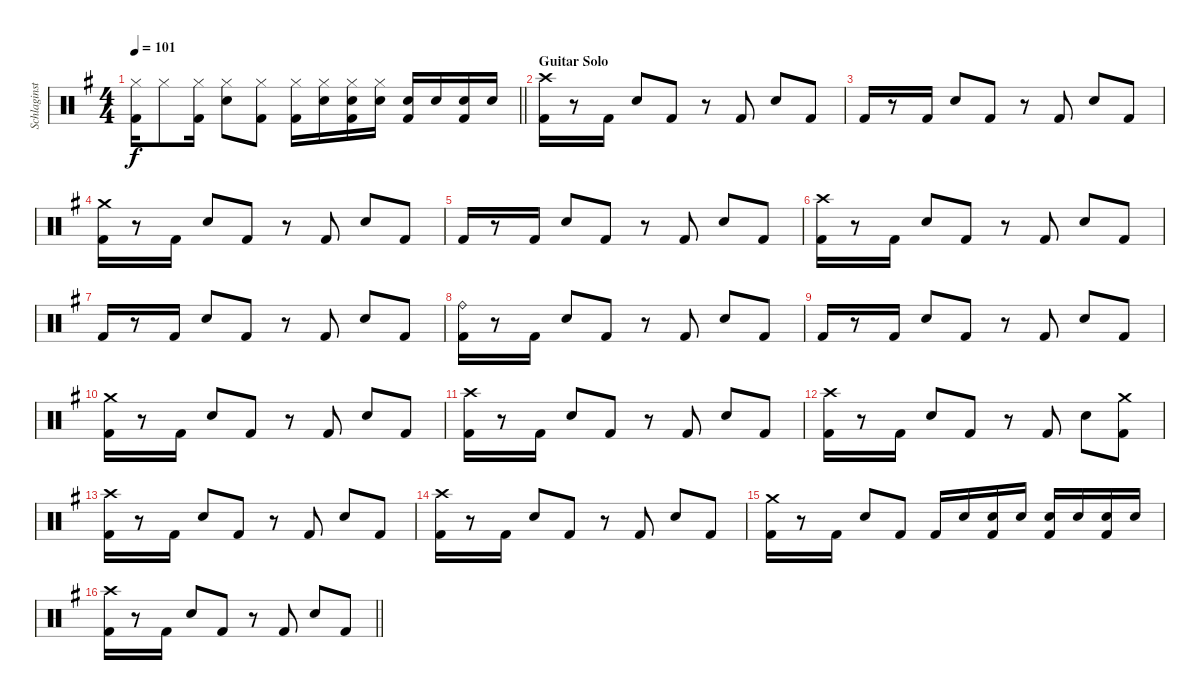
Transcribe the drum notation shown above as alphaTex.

\track ("Schlaginstrumente - Auswahl" "Schlaginst") {instrument percussion}
\staff {score}
\articulation defaults
\ts (4 4)
\tempo 101
\clef neutral
\barLineRight lightlight
\ks g
("Hi-Hat (closed)" "Kick (hit) 2").16{dy f} "Hi-Hat (closed)".8 ("Hi-Hat (closed)" "Kick (hit) 2").16 ("Hi-Hat (closed)" "Electric Snare (hit)").8 ("Hi-Hat (closed)" "Kick (hit) 2").8 ("Hi-Hat (closed)" "Kick (hit) 2").16 ("Hi-Hat (closed)" "Electric Snare (hit)").16 ("Hi-Hat (closed)" "Electric Snare (hit)" "Kick (hit) 2").16 ("Hi-Hat (closed)" "Electric Snare (hit)").16 ("Electric Snare (hit)" "Kick (hit) 2").16 "Electric Snare (hit)".16 ("Electric Snare (hit)" "Kick (hit) 2").16 "Electric Snare (hit)".16 |
\section ("" "Guitar Solo")
("Crash high (hit)" "Kick (hit) 2").16 r.8 "Kick (hit) 2".16 "Electric Snare (hit)".8 "Kick (hit) 2".8 r.8 "Kick (hit) 2".8 "Electric Snare (hit)".8 "Kick (hit) 2".8 |
"Kick (hit) 2".16 r.8 "Kick (hit) 2".16 "Electric Snare (hit)".8 "Kick (hit) 2".8 r.8 "Kick (hit) 2".8 "Electric Snare (hit)".8 "Kick (hit) 2".8 |
("Crash medium (hit)" "Kick (hit) 2").16 r.8 "Kick (hit) 2".16 "Electric Snare (hit)".8 "Kick (hit) 2".8 r.8 "Kick (hit) 2".8 "Electric Snare (hit)".8 "Kick (hit) 2".8 |
"Kick (hit) 2".16 r.8 "Kick (hit) 2".16 "Electric Snare (hit)".8 "Kick (hit) 2".8 r.8 "Kick (hit) 2".8 "Electric Snare (hit)".8 "Kick (hit) 2".8 |
("Crash high (hit)" "Kick (hit) 2").16 r.8 "Kick (hit) 2".16 "Electric Snare (hit)".8 "Kick (hit) 2".8 r.8 "Kick (hit) 2".8 "Electric Snare (hit)".8 "Kick (hit) 2".8 |
"Kick (hit) 2".16 r.8 "Kick (hit) 2".16 "Electric Snare (hit)".8 "Kick (hit) 2".8 r.8 "Kick (hit) 2".8 "Electric Snare (hit)".8 "Kick (hit) 2".8 |
("Ride (bell)" "Kick (hit) 2").16 r.8 "Kick (hit) 2".16 "Electric Snare (hit)".8 "Kick (hit) 2".8 r.8 "Kick (hit) 2".8 "Electric Snare (hit)".8 "Kick (hit) 2".8 |
"Kick (hit) 2".16 r.8 "Kick (hit) 2".16 "Electric Snare (hit)".8 "Kick (hit) 2".8 r.8 "Kick (hit) 2".8 "Electric Snare (hit)".8 "Kick (hit) 2".8 |
("Crash medium (hit)" "Kick (hit) 2").16 r.8 "Kick (hit) 2".16 "Electric Snare (hit)".8 "Kick (hit) 2".8 r.8 "Kick (hit) 2".8 "Electric Snare (hit)".8 "Kick (hit) 2".8 |
("Crash high (hit)" "Kick (hit) 2").16 r.8 "Kick (hit) 2".16 "Electric Snare (hit)".8 "Kick (hit) 2".8 r.8 "Kick (hit) 2".8 "Electric Snare (hit)".8 "Kick (hit) 2".8 |
("Crash high (hit)" "Kick (hit) 2").16 r.8 "Kick (hit) 2".16 "Electric Snare (hit)".8 "Kick (hit) 2".8 r.8 "Kick (hit) 2".8 "Electric Snare (hit)".8 ("Crash medium (hit)" "Kick (hit) 2").8 |
("Crash high (hit)" "Kick (hit) 2").16 r.8 "Kick (hit) 2".16 "Electric Snare (hit)".8 "Kick (hit) 2".8 r.8 "Kick (hit) 2".8 "Electric Snare (hit)".8 "Kick (hit) 2".8 |
("Crash high (hit)" "Kick (hit) 2").16 r.8 "Kick (hit) 2".16 "Electric Snare (hit)".8 "Kick (hit) 2".8 r.8 "Kick (hit) 2".8 "Electric Snare (hit)".8 "Kick (hit) 2".8 |
("Crash medium (hit)" "Kick (hit) 2").16 r.8 "Kick (hit) 2".16 "Electric Snare (hit)".8 "Kick (hit) 2".8 "Kick (hit) 2".16 "Electric Snare (hit)".16 ("Electric Snare (hit)" "Kick (hit) 2").16 "Electric Snare (hit)".16 ("Electric Snare (hit)" "Kick (hit) 2").16 "Electric Snare (hit)".16 ("Electric Snare (hit)" "Kick (hit) 2").16 "Electric Snare (hit)".16 |
\barLineRight lightlight
("Crash high (hit)" "Kick (hit) 2").16 r.8 "Kick (hit) 2".16 "Electric Snare (hit)".8 "Kick (hit) 2".8 r.8 "Kick (hit) 2".8 "Electric Snare (hit)".8 "Kick (hit) 2".8
